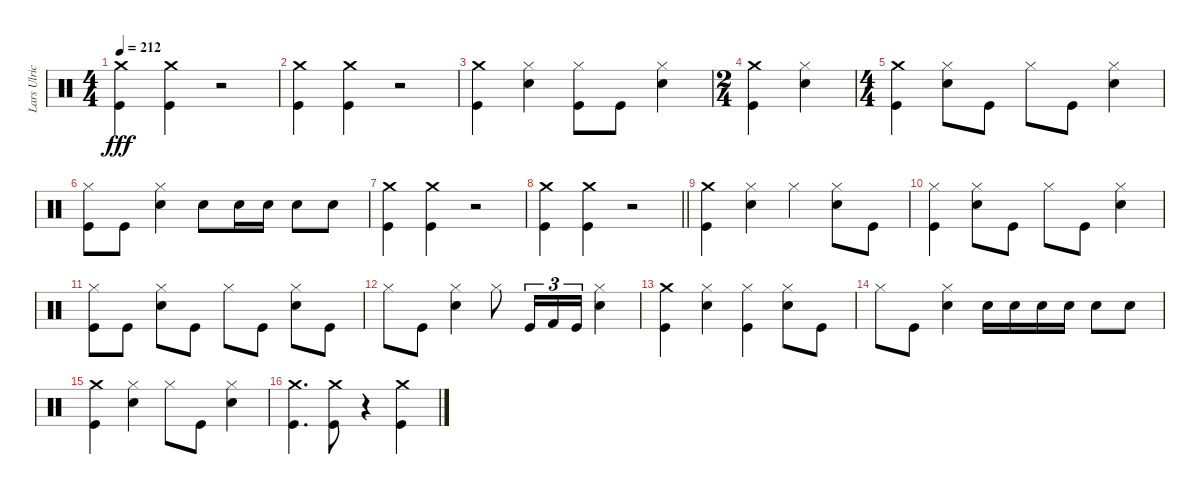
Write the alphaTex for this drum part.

\track ("Lars Ulrich" "Lars Ulric") {instrument percussion}
\staff {score}
\articulation defaults
\ts (4 4)
\tempo 212
\clef neutral
\ks c
("Kick (hit)" "Crash medium (hit)").4{dy fff} ("Kick (hit)" "Crash medium (hit)").4 r.2 |
("Kick (hit)" "Crash medium (hit)").4 ("Crash medium (hit)" "Kick (hit)").4 r.2 |
("Kick (hit)" "Crash medium (hit)").4 ("Snare (hit) 2" "Hi-Hat (closed)").4 ("Kick (hit)" "Hi-Hat (closed)").8 "Kick (hit)".8 ("Snare (hit) 2" "Hi-Hat (closed)").4 |
\ts (2 4)
("Crash medium (hit)" "Kick (hit)").4 ("Snare (hit) 2" "Hi-Hat (closed)").4 |
\ts (4 4)
("Kick (hit)" "Crash medium (hit)").4 ("Snare (hit) 2" "Hi-Hat (closed)").8 "Kick (hit)".8 "Hi-Hat (closed)".8 "Kick (hit)".8 ("Snare (hit) 2" "Hi-Hat (closed)").4 |
("Hi-Hat (closed)" "Kick (hit)").8 "Kick (hit)".8 ("Hi-Hat (closed)" "Snare (hit) 2").4 "Snare (hit) 2".8 "Snare (hit) 2".16 "Snare (hit) 2".16 "Snare (hit) 2".8 "Snare (hit) 2".8 |
("Kick (hit)" "Crash medium (hit)").4 ("Kick (hit)" "Crash medium (hit)").4 r.2 |
\barLineRight lightlight
("Crash medium (hit)" "Kick (hit)").4 ("Kick (hit)" "Crash medium (hit)").4 r.2 |
("Kick (hit)" "Crash medium (hit)").4 ("Snare (hit) 2" "Hi-Hat (closed)").4 "Hi-Hat (closed)".4 ("Snare (hit) 2" "Hi-Hat (closed)").8 "Kick (hit)".8 |
("Hi-Hat (closed)" "Kick (hit)").4 ("Hi-Hat (closed)" "Snare (hit) 2").8 "Kick (hit)".8 "Hi-Hat (closed)".8 "Kick (hit)".8 ("Snare (hit) 2" "Hi-Hat (closed)").4 |
("Hi-Hat (closed)" "Kick (hit)").8 "Kick (hit)".8 ("Snare (hit) 2" "Hi-Hat (closed)").8 "Kick (hit)".8 "Hi-Hat (closed)".8 "Kick (hit)".8 ("Snare (hit) 2" "Hi-Hat (closed)").8 "Kick (hit)".8 |
"Hi-Hat (closed)".8 "Kick (hit)".8 ("Snare (hit) 2" "Hi-Hat (closed)").4 "Hi-Hat (closed)".8 "Kick (hit)".16{tu (3 2)} "Kick (hit) 2".16{tu (3 2)} "Kick (hit)".16{tu (3 2)} ("Snare (hit) 2" "Hi-Hat (closed)").4 |
("Kick (hit)" "Crash medium (hit)").4 ("Hi-Hat (closed)" "Snare (hit) 2").4 ("Kick (hit)" "Hi-Hat (closed)").4 ("Snare (hit) 2" "Hi-Hat (closed)").8 "Kick (hit)".8 |
"Hi-Hat (closed)".8 "Kick (hit)".8 ("Snare (hit) 2" "Hi-Hat (closed)").4 "Snare (hit) 2".16 "Snare (hit) 2".16 "Snare (hit) 2".16 "Snare (hit) 2".16 "Snare (hit) 2".8 "Snare (hit) 2".8 |
("Kick (hit)" "Crash medium (hit)").4 ("Snare (hit) 2" "Hi-Hat (closed)").4 "Hi-Hat (closed)".8 "Kick (hit)".8 ("Snare (hit) 2" "Hi-Hat (closed)").4 |
("Kick (hit)" "Crash medium (hit)").4{d} ("Crash medium (hit)" "Kick (hit)").8 r.4 ("Kick (hit)" "Crash medium (hit)").4
